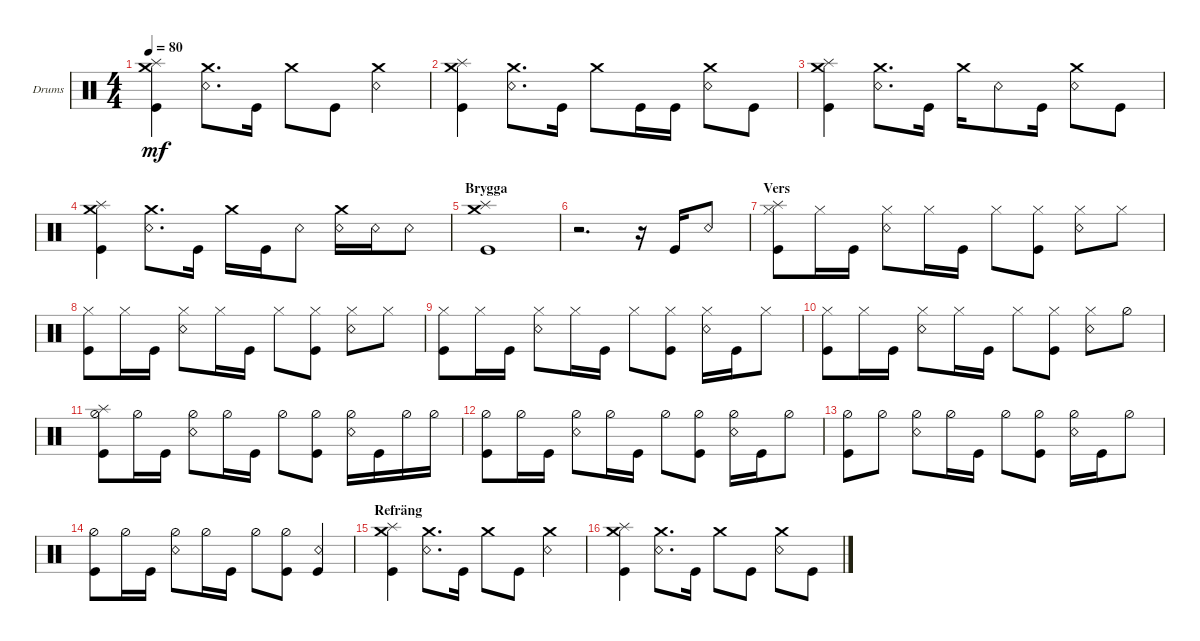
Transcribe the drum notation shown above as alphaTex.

\defaultSystemsLayout 4
\bracketExtendMode groupsimilarinstruments
\firstSystemTrackNameOrientation horizontal
\otherSystemsTrackNameOrientation horizontal
\track ("Drums" "Drums") {instrument percussion}
\staff {score}
\articulation defaults
\ts (4 4)
\tempo 80
\clef neutral
\ks c
("Kick (hit)" "Crash medium (hit)" "Splash (hit)").4{dy mf} ("Snare (rim shot)" "Crash medium (hit)").8{d} "Kick (hit)".16 "Crash medium (hit)".8 "Kick (hit)".8 ("Snare (rim shot)" "Crash medium (hit)").4 |
("Kick (hit)" "Crash medium (hit)" "Splash (hit)").4 ("Snare (rim shot)" "Crash medium (hit)").8{d} "Kick (hit)".16 "Crash medium (hit)".8 "Kick (hit)".16 "Kick (hit)".16 ("Snare (rim shot)" "Crash medium (hit)").8 "Kick (hit)".8 |
("Kick (hit)" "Crash medium (hit)" "Splash (hit)").4 ("Snare (rim shot)" "Crash medium (hit)").8{d} "Kick (hit)".16 "Crash medium (hit)".16 "Snare (rim shot)".8 "Kick (hit)".16 ("Snare (rim shot)" "Crash medium (hit)").8 "Kick (hit)".8 |
("Kick (hit)" "Crash medium (hit)" "Splash (hit)").4 ("Snare (rim shot)" "Crash medium (hit)").8{d} "Kick (hit)".16 "Crash medium (hit)".16 "Kick (hit)".16 "Snare (rim shot)".8 ("Snare (rim shot)" "Crash medium (hit)").16 "Snare (rim shot)".16 "Snare (rim shot)".8 |
\section ("" "Brygga")
("Splash (hit)" "Crash medium (hit)" "Kick (hit)").1 |
r.2{d} r.16 "Kick (hit)".16 "Snare (rim shot)".8 |
\section ("" "Vers")
("Hi-Hat (closed)" "Kick (hit)" "Splash (hit)").8 "Hi-Hat (closed)".16 "Kick (hit)".16 ("Hi-Hat (closed)" "Snare (rim shot)").8 "Hi-Hat (closed)".16 "Kick (hit)".16 "Hi-Hat (closed)".8 ("Hi-Hat (closed)" "Kick (hit)").8 ("Hi-Hat (closed)" "Snare (rim shot)").8 "Hi-Hat (closed)".8 |
("Hi-Hat (closed)" "Kick (hit)").8 "Hi-Hat (closed)".16 "Kick (hit)".16 ("Hi-Hat (closed)" "Snare (rim shot)").8 "Hi-Hat (closed)".16 "Kick (hit)".16 "Hi-Hat (closed)".8 ("Hi-Hat (closed)" "Kick (hit)").8 ("Hi-Hat (closed)" "Snare (rim shot)").8 "Hi-Hat (closed)".8 |
("Hi-Hat (closed)" "Kick (hit)").8 "Hi-Hat (closed)".16 "Kick (hit)".16 ("Hi-Hat (closed)" "Snare (rim shot)").8 "Hi-Hat (closed)".16 "Kick (hit)".16 "Hi-Hat (closed)".8 ("Hi-Hat (closed)" "Kick (hit)").8 ("Hi-Hat (closed)" "Snare (rim shot)").16 "Kick (hit)".16 "Hi-Hat (closed)".8 |
("Hi-Hat (closed)" "Kick (hit)").8 "Hi-Hat (closed)".16 "Kick (hit)".16 ("Hi-Hat (closed)" "Snare (rim shot)").8 "Hi-Hat (closed)".16 "Kick (hit)".16 "Hi-Hat (closed)".8 ("Hi-Hat (closed)" "Kick (hit)").8 ("Hi-Hat (closed)" "Snare (rim shot)").8 "Hi-Hat (half)".8 |
("Hi-Hat (half)" "Kick (hit)" "Splash (hit)").8 "Hi-Hat (half)".16 "Kick (hit)".16 ("Hi-Hat (half)" "Snare (rim shot)").8 "Hi-Hat (half)".16 "Kick (hit)".16 "Hi-Hat (half)".8 ("Hi-Hat (half)" "Kick (hit)").8 ("Hi-Hat (half)" "Snare (rim shot)").16 "Kick (hit)".16 "Hi-Hat (half)".16 "Hi-Hat (half)".16 |
("Hi-Hat (half)" "Kick (hit)").8 "Hi-Hat (half)".16 "Kick (hit)".16 ("Hi-Hat (half)" "Snare (rim shot)").8 "Hi-Hat (half)".16 "Kick (hit)".16 "Hi-Hat (half)".8 ("Hi-Hat (half)" "Kick (hit)").8 ("Hi-Hat (half)" "Snare (rim shot)").16 "Kick (hit)".16 "Hi-Hat (half)".8 |
("Hi-Hat (half)" "Kick (hit)").8 "Hi-Hat (half)".8 ("Hi-Hat (half)" "Snare (rim shot)").8 "Hi-Hat (half)".16 "Kick (hit)".16 "Hi-Hat (half)".8 ("Hi-Hat (half)" "Kick (hit)").8 ("Hi-Hat (half)" "Snare (rim shot)").16 "Kick (hit)".16 "Hi-Hat (half)".8 |
("Hi-Hat (half)" "Kick (hit)").8 "Hi-Hat (half)".16 "Kick (hit)".16 ("Hi-Hat (half)" "Snare (rim shot)").8 "Hi-Hat (half)".16 "Kick (hit)".16 "Hi-Hat (half)".8 ("Hi-Hat (half)" "Kick (hit)").8 ("Snare (rim shot)" "Kick (hit)").4 |
\section ("" "Refräng")
("Kick (hit)" "Crash medium (hit)" "Splash (hit)").4 ("Snare (rim shot)" "Crash medium (hit)").8{d} "Kick (hit)".16 "Crash medium (hit)".8 "Kick (hit)".8 ("Snare (rim shot)" "Crash medium (hit)").4 |
("Kick (hit)" "Crash medium (hit)" "Splash (hit)").4 ("Snare (rim shot)" "Crash medium (hit)").8{d} "Kick (hit)".16 "Crash medium (hit)".8 "Kick (hit)".8 ("Snare (rim shot)" "Crash medium (hit)").8 "Kick (hit)".8
